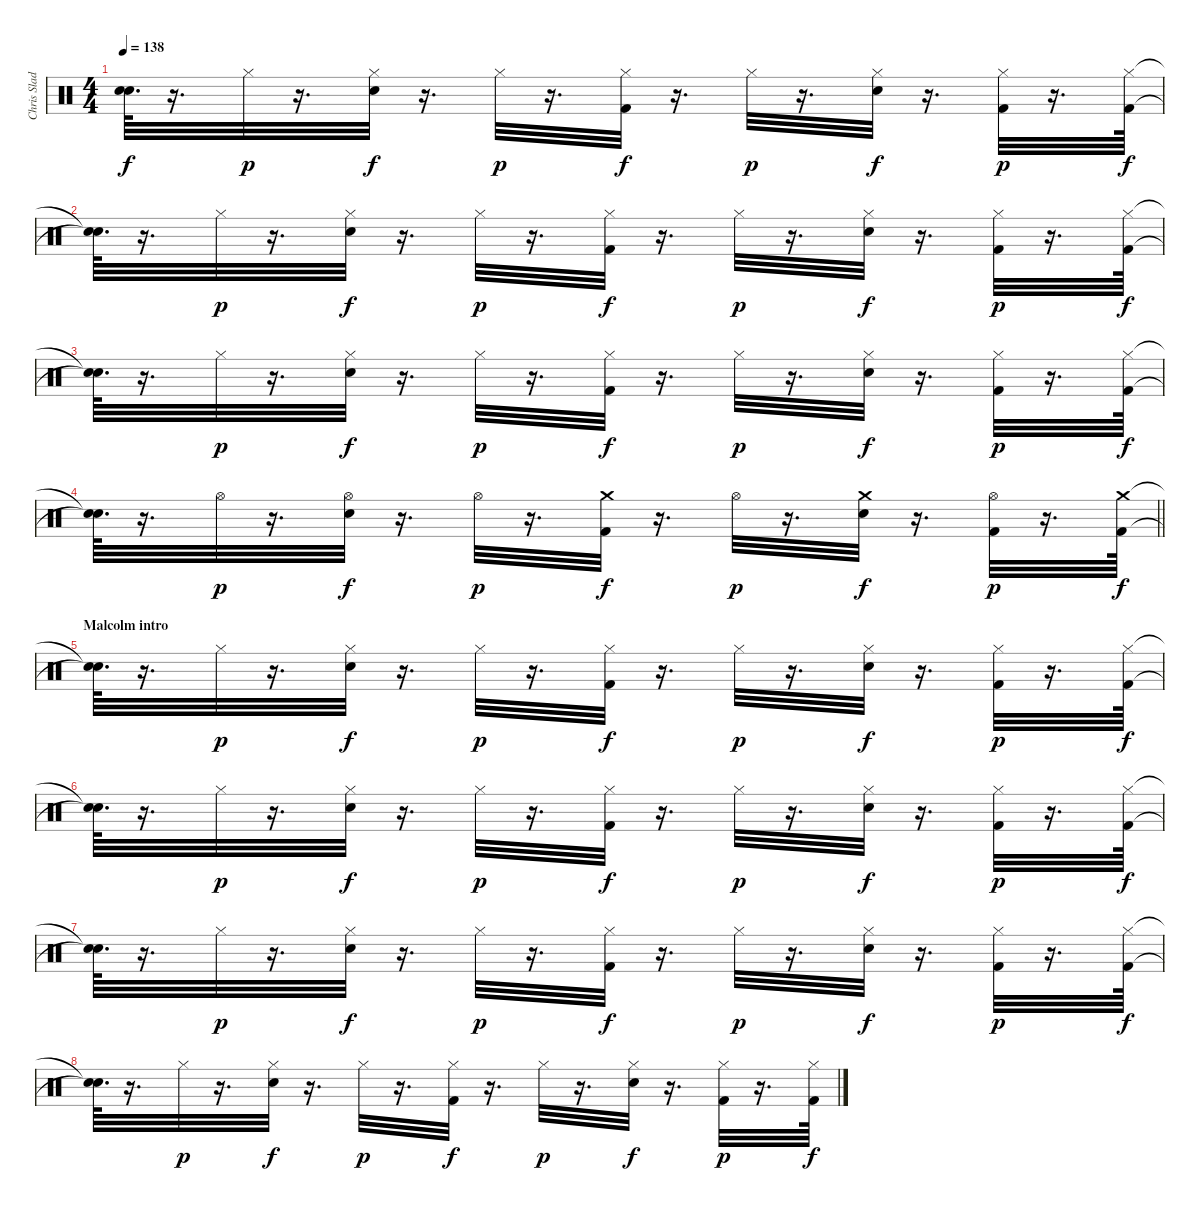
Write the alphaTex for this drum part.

\track ("Chris Slade" "Chris Slad") {instrument percussion}
\staff {score}
\articulation defaults
\ts (4 4)
\tempo 138
\clef neutral
\ks c
("Snare (hit)"{t} "Snare (hit)"{t}).64{d dy f} r.16{d} "Hi-Hat (closed)".32{dy p} r.16{d} ("Hi-Hat (closed)" "Electric Snare (hit)").32{dy f} r.16{d} "Hi-Hat (closed)".32{dy p} r.16{d} ("Hi-Hat (closed)" "Kick (hit) 2").32{dy f} r.16{d} "Hi-Hat (closed)".32{dy p} r.16{d} ("Hi-Hat (closed)" "Electric Snare (hit)").32{dy f} r.16{d} ("Hi-Hat (closed)" "Kick (hit) 2").32{dy p} r.16{d} ("Hi-Hat (closed)" "Kick (hit) 2").64{dy f} |
("Snare (hit)"{t} "Snare (hit)"{t}).64{d} r.16{d} "Hi-Hat (closed)".32{dy p} r.16{d} ("Hi-Hat (closed)" "Electric Snare (hit)").32{dy f} r.16{d} "Hi-Hat (closed)".32{dy p} r.16{d} ("Hi-Hat (closed)" "Kick (hit) 2").32{dy f} r.16{d} "Hi-Hat (closed)".32{dy p} r.16{d} ("Hi-Hat (closed)" "Electric Snare (hit)").32{dy f} r.16{d} ("Hi-Hat (closed)" "Kick (hit) 2").32{dy p} r.16{d} ("Hi-Hat (closed)" "Kick (hit) 2").64{dy f} |
("Snare (hit)"{t} "Snare (hit)"{t}).64{d} r.16{d} "Hi-Hat (closed)".32{dy p} r.16{d} ("Hi-Hat (closed)" "Electric Snare (hit)").32{dy f} r.16{d} "Hi-Hat (closed)".32{dy p} r.16{d} ("Hi-Hat (closed)" "Kick (hit) 2").32{dy f} r.16{d} "Hi-Hat (closed)".32{dy p} r.16{d} ("Hi-Hat (closed)" "Electric Snare (hit)").32{dy f} r.16{d} ("Hi-Hat (closed)" "Kick (hit) 2").32{dy p} r.16{d} ("Hi-Hat (closed)" "Kick (hit) 2").64{dy f} |
\barLineRight lightlight
("Snare (hit)"{t} "Snare (hit)"{t}).64{d} r.16{d} "Hi-Hat (open)".32{dy p} r.16{d} ("Hi-Hat (open)" "Electric Snare (hit)").32{dy f} r.16{d} "Hi-Hat (open)".32{dy p} r.16{d} ("Crash medium (hit)" "Kick (hit) 2").32{dy f} r.16{d} "Hi-Hat (open)".32{dy p} r.16{d} ("Crash medium (hit)" "Electric Snare (hit)").32{dy f} r.16{d} ("Hi-Hat (open)" "Kick (hit) 2").32{dy p} r.16{d} ("Crash medium (hit)" "Kick (hit) 2").64{dy f} |
\section ("" "Malcolm intro")
("Snare (hit)"{t} "Snare (hit)"{t}).64{d} r.16{d} "Hi-Hat (closed)".32{dy p} r.16{d} ("Hi-Hat (closed)" "Electric Snare (hit)").32{dy f} r.16{d} "Hi-Hat (closed)".32{dy p} r.16{d} ("Hi-Hat (closed)" "Kick (hit) 2").32{dy f} r.16{d} "Hi-Hat (closed)".32{dy p} r.16{d} ("Hi-Hat (closed)" "Electric Snare (hit)").32{dy f} r.16{d} ("Hi-Hat (closed)" "Kick (hit) 2").32{dy p} r.16{d} ("Hi-Hat (closed)" "Kick (hit) 2").64{dy f} |
("Snare (hit)"{t} "Snare (hit)"{t}).64{d} r.16{d} "Hi-Hat (closed)".32{dy p} r.16{d} ("Hi-Hat (closed)" "Electric Snare (hit)").32{dy f} r.16{d} "Hi-Hat (closed)".32{dy p} r.16{d} ("Hi-Hat (closed)" "Kick (hit) 2").32{dy f} r.16{d} "Hi-Hat (closed)".32{dy p} r.16{d} ("Hi-Hat (closed)" "Electric Snare (hit)").32{dy f} r.16{d} ("Hi-Hat (closed)" "Kick (hit) 2").32{dy p} r.16{d} ("Hi-Hat (closed)" "Kick (hit) 2").64{dy f} |
("Snare (hit)"{t} "Snare (hit)"{t}).64{d} r.16{d} "Hi-Hat (closed)".32{dy p} r.16{d} ("Hi-Hat (closed)" "Electric Snare (hit)").32{dy f} r.16{d} "Hi-Hat (closed)".32{dy p} r.16{d} ("Hi-Hat (closed)" "Kick (hit) 2").32{dy f} r.16{d} "Hi-Hat (closed)".32{dy p} r.16{d} ("Hi-Hat (closed)" "Electric Snare (hit)").32{dy f} r.16{d} ("Hi-Hat (closed)" "Kick (hit) 2").32{dy p} r.16{d} ("Hi-Hat (closed)" "Kick (hit) 2").64{dy f} |
("Snare (hit)"{t} "Snare (hit)"{t}).64{d} r.16{d} "Hi-Hat (closed)".32{dy p} r.16{d} ("Hi-Hat (closed)" "Electric Snare (hit)").32{dy f} r.16{d} "Hi-Hat (closed)".32{dy p} r.16{d} ("Hi-Hat (closed)" "Kick (hit) 2").32{dy f} r.16{d} "Hi-Hat (closed)".32{dy p} r.16{d} ("Hi-Hat (closed)" "Electric Snare (hit)").32{dy f} r.16{d} ("Hi-Hat (closed)" "Kick (hit) 2").32{dy p} r.16{d} ("Hi-Hat (closed)" "Kick (hit) 2").64{dy f}
